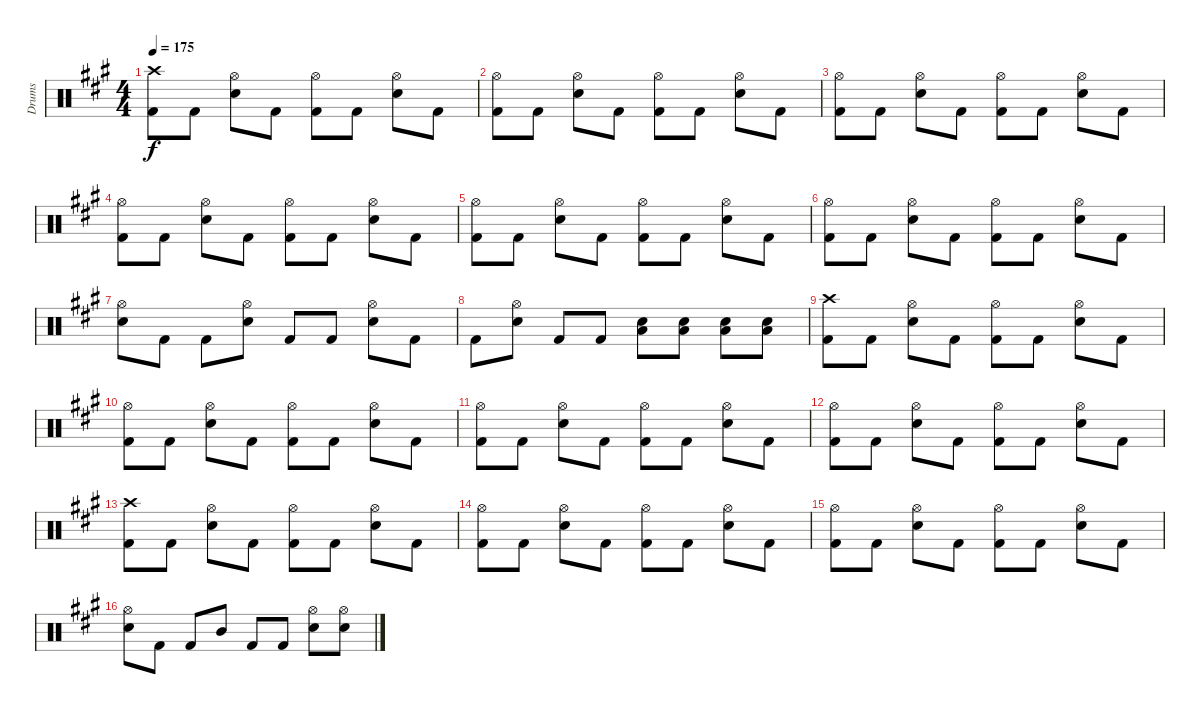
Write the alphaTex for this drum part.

\track ("Drums" "Drums") {instrument percussion}
\staff {score}
\articulation defaults
\ts (4 4)
\tempo 175
\clef neutral
\ks a
("Crash high (hit)" "Kick (hit) 2").8{dy f} "Kick (hit) 2".8 ("Hi-Hat (open)" "Snare (hit) 2").8 "Kick (hit) 2".8 ("Hi-Hat (open)" "Kick (hit) 2").8 "Kick (hit) 2".8 ("Hi-Hat (open)" "Snare (hit) 2").8 "Kick (hit) 2".8 |
("Hi-Hat (open)" "Kick (hit) 2").8 "Kick (hit) 2".8 ("Hi-Hat (open)" "Snare (hit) 2").8 "Kick (hit) 2".8 ("Hi-Hat (open)" "Kick (hit) 2").8 "Kick (hit) 2".8 ("Hi-Hat (open)" "Snare (hit) 2").8 "Kick (hit) 2".8 |
("Hi-Hat (open)" "Kick (hit) 2").8 "Kick (hit) 2".8 ("Hi-Hat (open)" "Snare (hit) 2").8 "Kick (hit) 2".8 ("Hi-Hat (open)" "Kick (hit) 2").8 "Kick (hit) 2".8 ("Hi-Hat (open)" "Snare (hit) 2").8 "Kick (hit) 2".8 |
("Hi-Hat (open)" "Kick (hit) 2").8 "Kick (hit) 2".8 ("Hi-Hat (open)" "Snare (hit) 2").8 "Kick (hit) 2".8 ("Hi-Hat (open)" "Kick (hit) 2").8 "Kick (hit) 2".8 ("Hi-Hat (open)" "Snare (hit) 2").8 "Kick (hit) 2".8 |
("Hi-Hat (open)" "Kick (hit) 2").8 "Kick (hit) 2".8 ("Hi-Hat (open)" "Snare (hit) 2").8 "Kick (hit) 2".8 ("Hi-Hat (open)" "Kick (hit) 2").8 "Kick (hit) 2".8 ("Hi-Hat (open)" "Snare (hit) 2").8 "Kick (hit) 2".8 |
("Hi-Hat (open)" "Kick (hit) 2").8 "Kick (hit) 2".8 ("Hi-Hat (open)" "Snare (hit) 2").8 "Kick (hit) 2".8 ("Hi-Hat (open)" "Kick (hit) 2").8 "Kick (hit) 2".8 ("Hi-Hat (open)" "Snare (hit) 2").8 "Kick (hit) 2".8 |
("Hi-Hat (open)" "Snare (hit) 2").8 "Kick (hit) 2".8 "Kick (hit) 2".8 ("Hi-Hat (open)" "Snare (hit) 2").8 "Kick (hit) 2".8 "Kick (hit) 2".8 ("Hi-Hat (open)" "Snare (hit) 2").8 "Kick (hit) 2".8 |
"Kick (hit) 2".8 ("Hi-Hat (open)" "Snare (hit) 2").8 "Kick (hit) 2".8 "Kick (hit) 2".8 ("Snare (hit) 2" "Low Floor Tom (hit)").8 ("Snare (hit) 2" "Low Floor Tom (hit)").8 ("Snare (hit) 2" "Low Floor Tom (hit)").8 ("Snare (hit) 2" "Low Floor Tom (hit)").8 |
("Crash high (hit)" "Kick (hit) 2").8 "Kick (hit) 2".8 ("Hi-Hat (open)" "Snare (hit) 2").8 "Kick (hit) 2".8 ("Hi-Hat (open)" "Kick (hit) 2").8 "Kick (hit) 2".8 ("Hi-Hat (open)" "Snare (hit) 2").8 "Kick (hit) 2".8 |
("Hi-Hat (open)" "Kick (hit) 2").8 "Kick (hit) 2".8 ("Hi-Hat (open)" "Snare (hit) 2").8 "Kick (hit) 2".8 ("Hi-Hat (open)" "Kick (hit) 2").8 "Kick (hit) 2".8 ("Hi-Hat (open)" "Snare (hit) 2").8 "Kick (hit) 2".8 |
("Hi-Hat (open)" "Kick (hit) 2").8 "Kick (hit) 2".8 ("Hi-Hat (open)" "Snare (hit) 2").8 "Kick (hit) 2".8 ("Hi-Hat (open)" "Kick (hit) 2").8 "Kick (hit) 2".8 ("Hi-Hat (open)" "Snare (hit) 2").8 "Kick (hit) 2".8 |
("Hi-Hat (open)" "Kick (hit) 2").8 "Kick (hit) 2".8 ("Hi-Hat (open)" "Snare (hit) 2").8 "Kick (hit) 2".8 ("Hi-Hat (open)" "Kick (hit) 2").8 "Kick (hit) 2".8 ("Hi-Hat (open)" "Snare (hit) 2").8 "Kick (hit) 2".8 |
("Crash high (hit)" "Kick (hit) 2").8 "Kick (hit) 2".8 ("Hi-Hat (open)" "Snare (hit) 2").8 "Kick (hit) 2".8 ("Hi-Hat (open)" "Kick (hit) 2").8 "Kick (hit) 2".8 ("Hi-Hat (open)" "Snare (hit) 2").8 "Kick (hit) 2".8 |
("Hi-Hat (open)" "Kick (hit) 2").8 "Kick (hit) 2".8 ("Hi-Hat (open)" "Snare (hit) 2").8 "Kick (hit) 2".8 ("Hi-Hat (open)" "Kick (hit) 2").8 "Kick (hit) 2".8 ("Hi-Hat (open)" "Snare (hit) 2").8 "Kick (hit) 2".8 |
("Hi-Hat (open)" "Kick (hit) 2").8 "Kick (hit) 2".8 ("Hi-Hat (open)" "Snare (hit) 2").8 "Kick (hit) 2".8 ("Hi-Hat (open)" "Kick (hit) 2").8 "Kick (hit) 2".8 ("Hi-Hat (open)" "Snare (hit) 2").8 "Kick (hit) 2".8 |
("Hi-Hat (open)" "Snare (hit) 2").8 "Kick (hit) 2".8 "Kick (hit) 2".8 "Mid Tom (hit)".8 "Kick (hit) 2".8 "Kick (hit) 2".8 ("Hi-Hat (open)" "Snare (hit) 2").8 ("Hi-Hat (open)" "Snare (hit) 2").8
